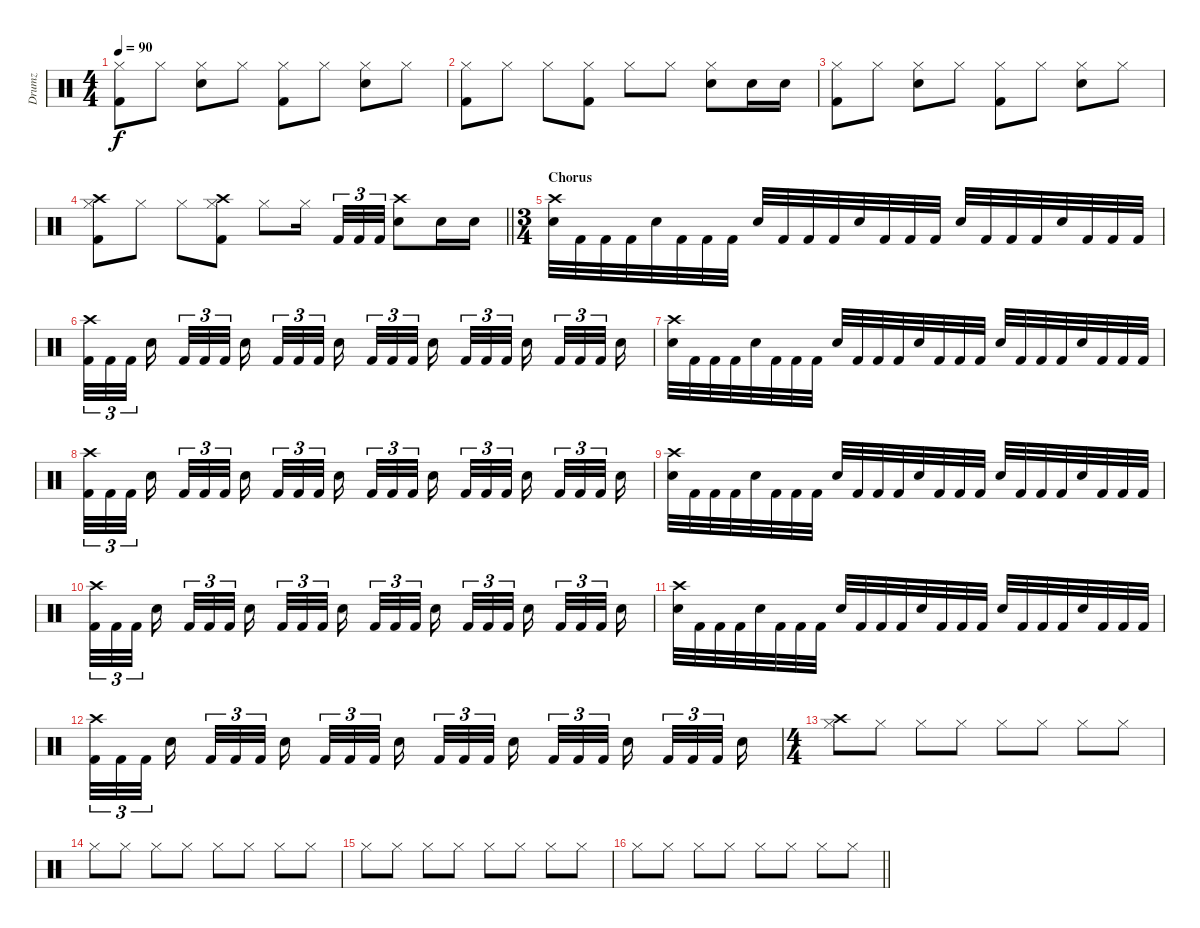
\track ("Drumz" "Drumz") {instrument percussion}
\staff {score}
\articulation defaults
\ts (4 4)
\tempo 90
\clef neutral
\ks c
("Hi-Hat (closed)" "Kick (hit) 2").8{dy f} "Hi-Hat (closed)".8 ("Hi-Hat (closed)" "Snare (hit) 2").8 "Hi-Hat (closed)".8 ("Hi-Hat (closed)" "Kick (hit) 2").8 "Hi-Hat (closed)".8 ("Hi-Hat (closed)" "Snare (hit) 2").8 "Hi-Hat (closed)".8 |
("Hi-Hat (closed)" "Kick (hit) 2").8 "Hi-Hat (closed)".8 "Hi-Hat (closed)".8 ("Hi-Hat (closed)" "Kick (hit) 2").8 "Hi-Hat (closed)".8 "Hi-Hat (closed)".8 ("Hi-Hat (closed)" "Snare (hit) 2").8 "Snare (hit) 2".16 "Snare (hit) 2".16 |
("Hi-Hat (closed)" "Kick (hit) 2").8 "Hi-Hat (closed)".8 ("Hi-Hat (closed)" "Snare (hit) 2").8 "Hi-Hat (closed)".8 ("Hi-Hat (closed)" "Kick (hit) 2").8 "Hi-Hat (closed)".8 ("Hi-Hat (closed)" "Snare (hit) 2").8 "Hi-Hat (closed)".8 |
\barLineRight lightlight
("Hi-Hat (closed)" "Crash high (hit)" "Kick (hit) 2").8 "Hi-Hat (closed)".8 "Hi-Hat (closed)".8 ("Hi-Hat (closed)" "Crash high (hit)" "Kick (hit) 2").8 "Hi-Hat (closed)".8 "Hi-Hat (closed)".16{beam splitsecondary} "Kick (hit) 2".32{tu (3 2)} "Kick (hit) 2".32{tu (3 2)} "Kick (hit) 2".32{tu (3 2)} ("Crash high (hit)" "Snare (hit) 2").8 "Snare (hit) 2".16 "Snare (hit) 2".16 |
\ts (3 4)
\section ("" "Chorus")
("Crash high (hit)" "Snare (hit) 2").32 "Kick (hit) 2".32 "Kick (hit) 2".32 "Kick (hit) 2".32 "Snare (hit) 2".32 "Kick (hit) 2".32 "Kick (hit) 2".32 "Kick (hit) 2".32 "Snare (hit) 2".32 "Kick (hit) 2".32 "Kick (hit) 2".32 "Kick (hit) 2".32 "Snare (hit) 2".32 "Kick (hit) 2".32 "Kick (hit) 2".32 "Kick (hit) 2".32 "Snare (hit) 2".32 "Kick (hit) 2".32 "Kick (hit) 2".32 "Kick (hit) 2".32 "Snare (hit) 2".32 "Kick (hit) 2".32 "Kick (hit) 2".32 "Kick (hit) 2".32 |
("Crash high (hit)" "Kick (hit) 2").32{tu (3 2)} "Kick (hit) 2".32{tu (3 2)} "Kick (hit) 2".32{tu (3 2) beam splitsecondary} "Snare (hit) 2".16{beam splitsecondary} "Kick (hit) 2".32{tu (3 2)} "Kick (hit) 2".32{tu (3 2)} "Kick (hit) 2".32{tu (3 2) beam splitsecondary} "Snare (hit) 2".16 "Kick (hit) 2".32{tu (3 2)} "Kick (hit) 2".32{tu (3 2)} "Kick (hit) 2".32{tu (3 2) beam splitsecondary} "Snare (hit) 2".16{beam splitsecondary} "Kick (hit) 2".32{tu (3 2)} "Kick (hit) 2".32{tu (3 2)} "Kick (hit) 2".32{tu (3 2) beam splitsecondary} "Snare (hit) 2".16 "Kick (hit) 2".32{tu (3 2)} "Kick (hit) 2".32{tu (3 2)} "Kick (hit) 2".32{tu (3 2) beam splitsecondary} "Snare (hit) 2".16{beam splitsecondary} "Kick (hit) 2".32{tu (3 2)} "Kick (hit) 2".32{tu (3 2)} "Kick (hit) 2".32{tu (3 2) beam splitsecondary} "Snare (hit) 2".16 |
("Crash high (hit)" "Snare (hit) 2").32 "Kick (hit) 2".32 "Kick (hit) 2".32 "Kick (hit) 2".32 "Snare (hit) 2".32 "Kick (hit) 2".32 "Kick (hit) 2".32 "Kick (hit) 2".32 "Snare (hit) 2".32 "Kick (hit) 2".32 "Kick (hit) 2".32 "Kick (hit) 2".32 "Snare (hit) 2".32 "Kick (hit) 2".32 "Kick (hit) 2".32 "Kick (hit) 2".32 "Snare (hit) 2".32 "Kick (hit) 2".32 "Kick (hit) 2".32 "Kick (hit) 2".32 "Snare (hit) 2".32 "Kick (hit) 2".32 "Kick (hit) 2".32 "Kick (hit) 2".32 |
("Crash high (hit)" "Kick (hit) 2").32{tu (3 2)} "Kick (hit) 2".32{tu (3 2)} "Kick (hit) 2".32{tu (3 2) beam splitsecondary} "Snare (hit) 2".16{beam splitsecondary} "Kick (hit) 2".32{tu (3 2)} "Kick (hit) 2".32{tu (3 2)} "Kick (hit) 2".32{tu (3 2) beam splitsecondary} "Snare (hit) 2".16 "Kick (hit) 2".32{tu (3 2)} "Kick (hit) 2".32{tu (3 2)} "Kick (hit) 2".32{tu (3 2) beam splitsecondary} "Snare (hit) 2".16{beam splitsecondary} "Kick (hit) 2".32{tu (3 2)} "Kick (hit) 2".32{tu (3 2)} "Kick (hit) 2".32{tu (3 2) beam splitsecondary} "Snare (hit) 2".16 "Kick (hit) 2".32{tu (3 2)} "Kick (hit) 2".32{tu (3 2)} "Kick (hit) 2".32{tu (3 2) beam splitsecondary} "Snare (hit) 2".16{beam splitsecondary} "Kick (hit) 2".32{tu (3 2)} "Kick (hit) 2".32{tu (3 2)} "Kick (hit) 2".32{tu (3 2) beam splitsecondary} "Snare (hit) 2".16 |
("Crash high (hit)" "Snare (hit) 2").32 "Kick (hit) 2".32 "Kick (hit) 2".32 "Kick (hit) 2".32 "Snare (hit) 2".32 "Kick (hit) 2".32 "Kick (hit) 2".32 "Kick (hit) 2".32 "Snare (hit) 2".32 "Kick (hit) 2".32 "Kick (hit) 2".32 "Kick (hit) 2".32 "Snare (hit) 2".32 "Kick (hit) 2".32 "Kick (hit) 2".32 "Kick (hit) 2".32 "Snare (hit) 2".32 "Kick (hit) 2".32 "Kick (hit) 2".32 "Kick (hit) 2".32 "Snare (hit) 2".32 "Kick (hit) 2".32 "Kick (hit) 2".32 "Kick (hit) 2".32 |
("Crash high (hit)" "Kick (hit) 2").32{tu (3 2)} "Kick (hit) 2".32{tu (3 2)} "Kick (hit) 2".32{tu (3 2) beam splitsecondary} "Snare (hit) 2".16{beam splitsecondary} "Kick (hit) 2".32{tu (3 2)} "Kick (hit) 2".32{tu (3 2)} "Kick (hit) 2".32{tu (3 2) beam splitsecondary} "Snare (hit) 2".16 "Kick (hit) 2".32{tu (3 2)} "Kick (hit) 2".32{tu (3 2)} "Kick (hit) 2".32{tu (3 2) beam splitsecondary} "Snare (hit) 2".16{beam splitsecondary} "Kick (hit) 2".32{tu (3 2)} "Kick (hit) 2".32{tu (3 2)} "Kick (hit) 2".32{tu (3 2) beam splitsecondary} "Snare (hit) 2".16 "Kick (hit) 2".32{tu (3 2)} "Kick (hit) 2".32{tu (3 2)} "Kick (hit) 2".32{tu (3 2) beam splitsecondary} "Snare (hit) 2".16{beam splitsecondary} "Kick (hit) 2".32{tu (3 2)} "Kick (hit) 2".32{tu (3 2)} "Kick (hit) 2".32{tu (3 2) beam splitsecondary} "Snare (hit) 2".16 |
("Crash high (hit)" "Snare (hit) 2").32 "Kick (hit) 2".32 "Kick (hit) 2".32 "Kick (hit) 2".32 "Snare (hit) 2".32 "Kick (hit) 2".32 "Kick (hit) 2".32 "Kick (hit) 2".32 "Snare (hit) 2".32 "Kick (hit) 2".32 "Kick (hit) 2".32 "Kick (hit) 2".32 "Snare (hit) 2".32 "Kick (hit) 2".32 "Kick (hit) 2".32 "Kick (hit) 2".32 "Snare (hit) 2".32 "Kick (hit) 2".32 "Kick (hit) 2".32 "Kick (hit) 2".32 "Snare (hit) 2".32 "Kick (hit) 2".32 "Kick (hit) 2".32 "Kick (hit) 2".32 |
("Crash high (hit)" "Kick (hit) 2").32{tu (3 2)} "Kick (hit) 2".32{tu (3 2)} "Kick (hit) 2".32{tu (3 2) beam splitsecondary} "Snare (hit) 2".16{beam splitsecondary} "Kick (hit) 2".32{tu (3 2)} "Kick (hit) 2".32{tu (3 2)} "Kick (hit) 2".32{tu (3 2) beam splitsecondary} "Snare (hit) 2".16 "Kick (hit) 2".32{tu (3 2)} "Kick (hit) 2".32{tu (3 2)} "Kick (hit) 2".32{tu (3 2) beam splitsecondary} "Snare (hit) 2".16{beam splitsecondary} "Kick (hit) 2".32{tu (3 2)} "Kick (hit) 2".32{tu (3 2)} "Kick (hit) 2".32{tu (3 2) beam splitsecondary} "Snare (hit) 2".16 "Kick (hit) 2".32{tu (3 2)} "Kick (hit) 2".32{tu (3 2)} "Kick (hit) 2".32{tu (3 2) beam splitsecondary} "Snare (hit) 2".16{beam splitsecondary} "Kick (hit) 2".32{tu (3 2)} "Kick (hit) 2".32{tu (3 2)} "Kick (hit) 2".32{tu (3 2) beam splitsecondary} "Snare (hit) 2".16 |
\ts (4 4)
("Hi-Hat (closed)" "Crash high (hit)").8 "Hi-Hat (closed)".8 "Hi-Hat (closed)".8 "Hi-Hat (closed)".8 "Hi-Hat (closed)".8 "Hi-Hat (closed)".8 "Hi-Hat (closed)".8 "Hi-Hat (closed)".8 |
"Hi-Hat (closed)".8 "Hi-Hat (closed)".8 "Hi-Hat (closed)".8 "Hi-Hat (closed)".8 "Hi-Hat (closed)".8 "Hi-Hat (closed)".8 "Hi-Hat (closed)".8 "Hi-Hat (closed)".8 |
"Hi-Hat (closed)".8 "Hi-Hat (closed)".8 "Hi-Hat (closed)".8 "Hi-Hat (closed)".8 "Hi-Hat (closed)".8 "Hi-Hat (closed)".8 "Hi-Hat (closed)".8 "Hi-Hat (closed)".8 |
\barLineRight lightlight "Hi-Hat (closed)".8 "Hi-Hat (closed)".8 "Hi-Hat (closed)".8 "Hi-Hat (closed)".8 "Hi-Hat (closed)".8 "Hi-Hat (closed)".8 "Hi-Hat (closed)".8 "Hi-Hat (closed)".8
